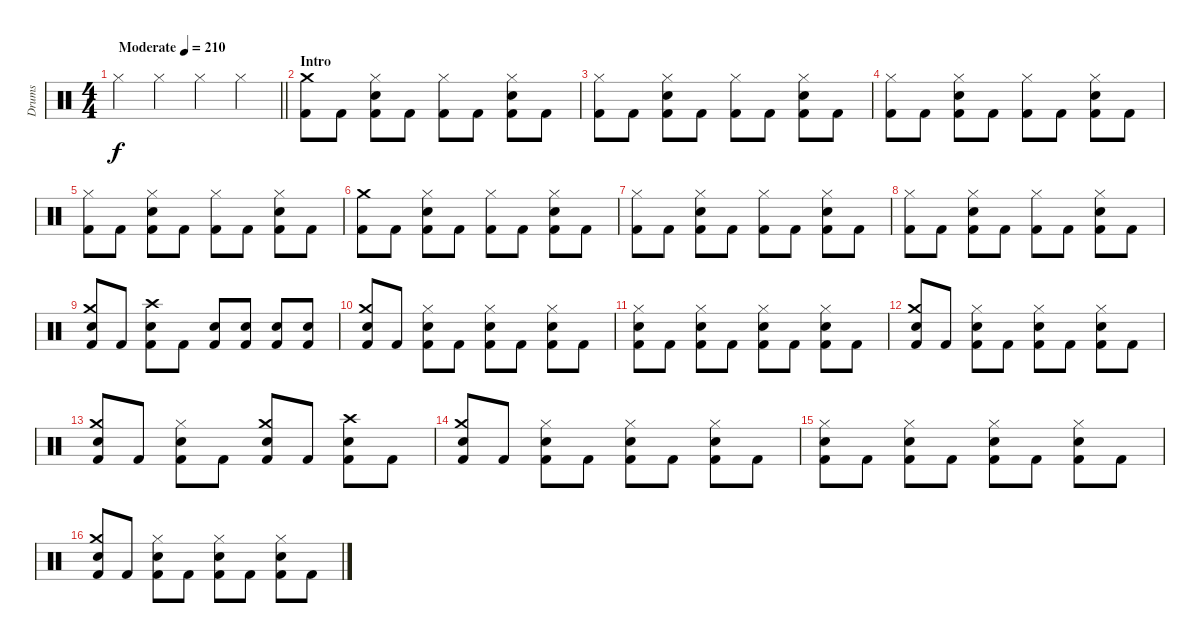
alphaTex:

\track ("Drums" "Drums") {instrument percussion}
\staff {score}
\articulation defaults
\ts (4 4)
\tempo (210 "Moderate")
\clef neutral
\barLineRight lightlight
\ks c "Hi-Hat (closed)".4{dy f} "Hi-Hat (closed)".4 "Hi-Hat (closed)".4 "Hi-Hat (closed)".4
|
\section ("" "Intro")
("Kick (hit) 2" "Crash medium (hit)").8 "Kick (hit) 2".8 ("Kick (hit) 2" "Snare (hit) 2" "Hi-Hat (closed)").8 "Kick (hit) 2".8 ("Kick (hit) 2" "Hi-Hat (closed)").8 "Kick (hit) 2".8 ("Kick (hit) 2" "Snare (hit) 2" "Hi-Hat (closed)").8 "Kick (hit) 2".8 |
("Kick (hit) 2" "Hi-Hat (closed)").8 "Kick (hit) 2".8 ("Kick (hit) 2" "Snare (hit) 2" "Hi-Hat (closed)").8 "Kick (hit) 2".8 ("Kick (hit) 2" "Hi-Hat (closed)").8 "Kick (hit) 2".8 ("Kick (hit) 2" "Snare (hit) 2" "Hi-Hat (closed)").8 "Kick (hit) 2".8 |
("Kick (hit) 2" "Hi-Hat (closed)").8 "Kick (hit) 2".8 ("Kick (hit) 2" "Snare (hit) 2" "Hi-Hat (closed)").8 "Kick (hit) 2".8 ("Kick (hit) 2" "Hi-Hat (closed)").8 "Kick (hit) 2".8 ("Kick (hit) 2" "Snare (hit) 2" "Hi-Hat (closed)").8 "Kick (hit) 2".8 |
("Kick (hit) 2" "Hi-Hat (closed)").8 "Kick (hit) 2".8 ("Kick (hit) 2" "Snare (hit) 2" "Hi-Hat (closed)").8 "Kick (hit) 2".8 ("Kick (hit) 2" "Hi-Hat (closed)").8 "Kick (hit) 2".8 ("Kick (hit) 2" "Snare (hit) 2" "Hi-Hat (closed)").8 "Kick (hit) 2".8 |
("Kick (hit) 2" "Crash medium (hit)").8 "Kick (hit) 2".8 ("Kick (hit) 2" "Snare (hit) 2" "Hi-Hat (closed)").8 "Kick (hit) 2".8 ("Kick (hit) 2" "Hi-Hat (closed)").8 "Kick (hit) 2".8 ("Kick (hit) 2" "Snare (hit) 2" "Hi-Hat (closed)").8 "Kick (hit) 2".8 |
("Kick (hit) 2" "Hi-Hat (closed)").8 "Kick (hit) 2".8 ("Kick (hit) 2" "Snare (hit) 2" "Hi-Hat (closed)").8 "Kick (hit) 2".8 ("Kick (hit) 2" "Hi-Hat (closed)").8 "Kick (hit) 2".8 ("Kick (hit) 2" "Snare (hit) 2" "Hi-Hat (closed)").8 "Kick (hit) 2".8 |
("Kick (hit) 2" "Hi-Hat (closed)").8 "Kick (hit) 2".8 ("Kick (hit) 2" "Snare (hit) 2" "Hi-Hat (closed)").8 "Kick (hit) 2".8 ("Kick (hit) 2" "Hi-Hat (closed)").8 "Kick (hit) 2".8 ("Kick (hit) 2" "Snare (hit) 2" "Hi-Hat (closed)").8 "Kick (hit) 2".8 |
("Kick (hit) 2" "Snare (hit) 2" "Crash medium (hit)").8 "Kick (hit) 2".8 ("Kick (hit) 2" "Snare (hit) 2" "Crash high (hit)").8 "Kick (hit) 2".8 ("Kick (hit) 2" "Snare (hit) 2").8 ("Kick (hit) 2" "Snare (hit) 2").8 ("Kick (hit) 2" "Snare (hit) 2").8 ("Kick (hit) 2" "Snare (hit) 2").8 |
("Kick (hit) 2" "Snare (hit) 2" "Crash medium (hit)").8 "Kick (hit) 2".8 ("Kick (hit) 2" "Snare (hit) 2" "Hi-Hat (closed)").8 "Kick (hit) 2".8 ("Kick (hit) 2" "Snare (hit) 2" "Hi-Hat (closed)").8 "Kick (hit) 2".8 ("Kick (hit) 2" "Snare (hit) 2" "Hi-Hat (closed)").8 "Kick (hit) 2".8 |
("Kick (hit) 2" "Snare (hit) 2" "Hi-Hat (closed)").8 "Kick (hit) 2".8 ("Kick (hit) 2" "Snare (hit) 2" "Hi-Hat (closed)").8 "Kick (hit) 2".8 ("Kick (hit) 2" "Snare (hit) 2" "Hi-Hat (closed)").8 "Kick (hit) 2".8 ("Kick (hit) 2" "Snare (hit) 2" "Hi-Hat (closed)").8 "Kick (hit) 2".8 |
("Kick (hit) 2" "Snare (hit) 2" "Crash medium (hit)").8 "Kick (hit) 2".8 ("Kick (hit) 2" "Snare (hit) 2" "Hi-Hat (closed)").8 "Kick (hit) 2".8 ("Kick (hit) 2" "Snare (hit) 2" "Hi-Hat (closed)").8 "Kick (hit) 2".8 ("Kick (hit) 2" "Snare (hit) 2" "Hi-Hat (closed)").8 "Kick (hit) 2".8 |
("Kick (hit) 2" "Snare (hit) 2" "Crash medium (hit)").8 "Kick (hit) 2".8 ("Kick (hit) 2" "Snare (hit) 2" "Hi-Hat (closed)").8 "Kick (hit) 2".8 ("Kick (hit) 2" "Snare (hit) 2" "Crash medium (hit)").8 "Kick (hit) 2".8 ("Kick (hit) 2" "Snare (hit) 2" "Crash high (hit)").8 "Kick (hit) 2".8 |
("Kick (hit) 2" "Snare (hit) 2" "Crash medium (hit)").8 "Kick (hit) 2".8 ("Kick (hit) 2" "Snare (hit) 2" "Hi-Hat (closed)").8 "Kick (hit) 2".8 ("Kick (hit) 2" "Snare (hit) 2" "Hi-Hat (closed)").8 "Kick (hit) 2".8 ("Kick (hit) 2" "Snare (hit) 2" "Hi-Hat (closed)").8 "Kick (hit) 2".8 |
("Kick (hit) 2" "Snare (hit) 2" "Hi-Hat (closed)").8 "Kick (hit) 2".8 ("Kick (hit) 2" "Snare (hit) 2" "Hi-Hat (closed)").8 "Kick (hit) 2".8 ("Kick (hit) 2" "Snare (hit) 2" "Hi-Hat (closed)").8 "Kick (hit) 2".8 ("Kick (hit) 2" "Snare (hit) 2" "Hi-Hat (closed)").8 "Kick (hit) 2".8 |
("Kick (hit) 2" "Snare (hit) 2" "Crash medium (hit)").8 "Kick (hit) 2".8 ("Kick (hit) 2" "Snare (hit) 2" "Hi-Hat (closed)").8 "Kick (hit) 2".8 ("Kick (hit) 2" "Snare (hit) 2" "Hi-Hat (closed)").8 "Kick (hit) 2".8 ("Kick (hit) 2" "Snare (hit) 2" "Hi-Hat (closed)").8 "Kick (hit) 2".8
